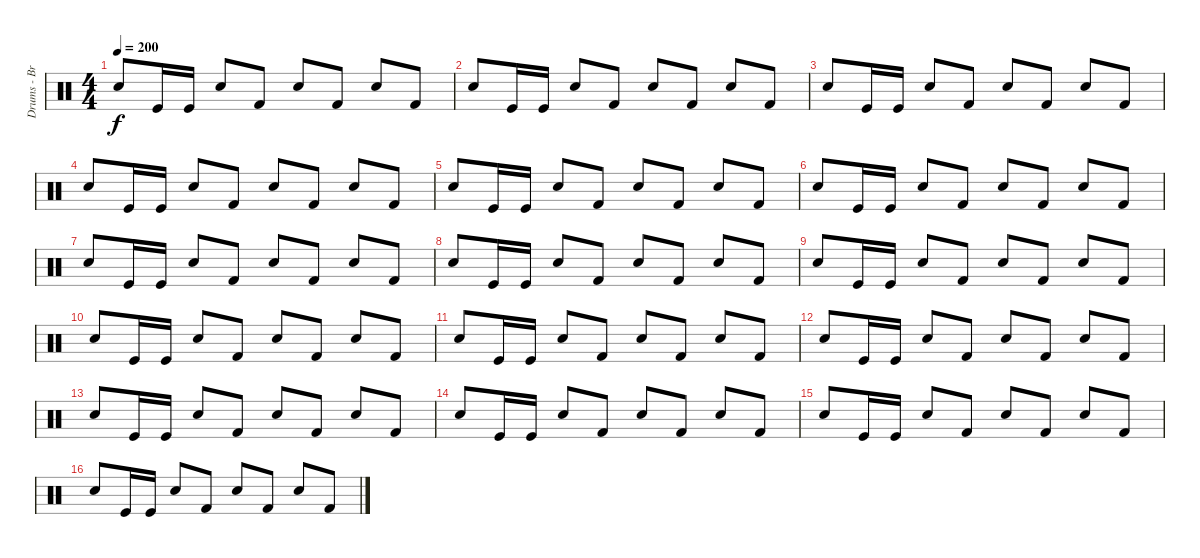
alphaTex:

\track ("Drums - Brandon Barnes" "Drums - Br") {instrument percussion}
\staff {score}
\articulation defaults
\ts (4 4)
\tempo 200
\clef neutral
\ks c "Snare (hit) 2".8{dy f} "Kick (hit)".16 "Kick (hit)".16 "Snare (hit) 2".8 "Kick (hit) 2".8 "Snare (hit) 2".8 "Kick (hit) 2".8 "Snare (hit) 2".8 "Kick (hit) 2".8
|
"Snare (hit) 2".8 "Kick (hit)".16 "Kick (hit)".16 "Snare (hit) 2".8 "Kick (hit) 2".8 "Snare (hit) 2".8 "Kick (hit) 2".8 "Snare (hit) 2".8 "Kick (hit) 2".8 |
"Snare (hit) 2".8 "Kick (hit)".16 "Kick (hit)".16 "Snare (hit) 2".8 "Kick (hit) 2".8 "Snare (hit) 2".8 "Kick (hit) 2".8 "Snare (hit) 2".8 "Kick (hit) 2".8 |
"Snare (hit) 2".8 "Kick (hit)".16 "Kick (hit)".16 "Snare (hit) 2".8 "Kick (hit) 2".8 "Snare (hit) 2".8 "Kick (hit) 2".8 "Snare (hit) 2".8 "Kick (hit) 2".8 |
"Snare (hit) 2".8 "Kick (hit)".16 "Kick (hit)".16 "Snare (hit) 2".8 "Kick (hit) 2".8 "Snare (hit) 2".8 "Kick (hit) 2".8 "Snare (hit) 2".8 "Kick (hit) 2".8 |
"Snare (hit) 2".8 "Kick (hit)".16 "Kick (hit)".16 "Snare (hit) 2".8 "Kick (hit) 2".8 "Snare (hit) 2".8 "Kick (hit) 2".8 "Snare (hit) 2".8 "Kick (hit) 2".8 |
"Snare (hit) 2".8 "Kick (hit)".16 "Kick (hit)".16 "Snare (hit) 2".8 "Kick (hit) 2".8 "Snare (hit) 2".8 "Kick (hit) 2".8 "Snare (hit) 2".8 "Kick (hit) 2".8 |
"Snare (hit) 2".8 "Kick (hit)".16 "Kick (hit)".16 "Snare (hit) 2".8 "Kick (hit) 2".8 "Snare (hit) 2".8 "Kick (hit) 2".8 "Snare (hit) 2".8 "Kick (hit) 2".8 |
"Snare (hit) 2".8 "Kick (hit)".16 "Kick (hit)".16 "Snare (hit) 2".8 "Kick (hit) 2".8 "Snare (hit) 2".8 "Kick (hit) 2".8 "Snare (hit) 2".8 "Kick (hit) 2".8 |
"Snare (hit) 2".8 "Kick (hit)".16 "Kick (hit)".16 "Snare (hit) 2".8 "Kick (hit) 2".8 "Snare (hit) 2".8 "Kick (hit) 2".8 "Snare (hit) 2".8 "Kick (hit) 2".8 |
"Snare (hit) 2".8 "Kick (hit)".16 "Kick (hit)".16 "Snare (hit) 2".8 "Kick (hit) 2".8 "Snare (hit) 2".8 "Kick (hit) 2".8 "Snare (hit) 2".8 "Kick (hit) 2".8 |
"Snare (hit) 2".8 "Kick (hit)".16 "Kick (hit)".16 "Snare (hit) 2".8 "Kick (hit) 2".8 "Snare (hit) 2".8 "Kick (hit) 2".8 "Snare (hit) 2".8 "Kick (hit) 2".8 |
"Snare (hit) 2".8 "Kick (hit)".16 "Kick (hit)".16 "Snare (hit) 2".8 "Kick (hit) 2".8 "Snare (hit) 2".8 "Kick (hit) 2".8 "Snare (hit) 2".8 "Kick (hit) 2".8 |
"Snare (hit) 2".8 "Kick (hit)".16 "Kick (hit)".16 "Snare (hit) 2".8 "Kick (hit) 2".8 "Snare (hit) 2".8 "Kick (hit) 2".8 "Snare (hit) 2".8 "Kick (hit) 2".8 |
"Snare (hit) 2".8 "Kick (hit)".16 "Kick (hit)".16 "Snare (hit) 2".8 "Kick (hit) 2".8 "Snare (hit) 2".8 "Kick (hit) 2".8 "Snare (hit) 2".8 "Kick (hit) 2".8 |
"Snare (hit) 2".8 "Kick (hit)".16 "Kick (hit)".16 "Snare (hit) 2".8 "Kick (hit) 2".8 "Snare (hit) 2".8 "Kick (hit) 2".8 "Snare (hit) 2".8 "Kick (hit) 2".8
